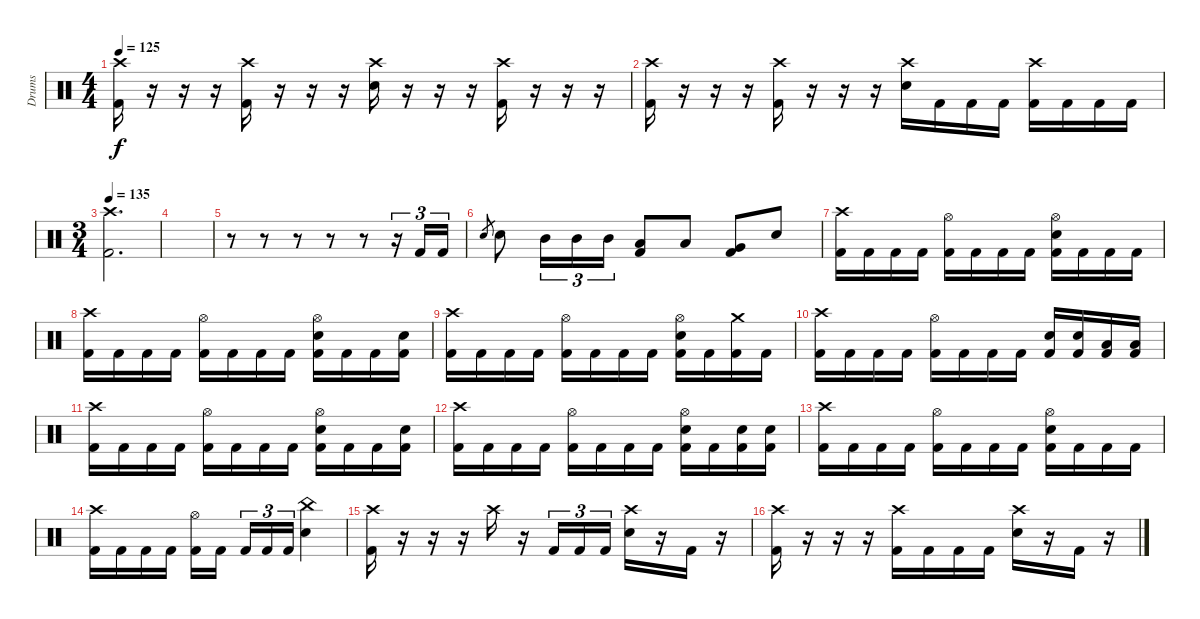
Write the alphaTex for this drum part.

\track ("Drums" "Drums") {instrument percussion}
\staff {score}
\articulation defaults
\ts (4 4)
\tempo 125
\clef neutral
\ks c
("Crash high (hit)" "Kick (hit) 2").16{dy f} r.16 r.16 r.16 ("Crash high (hit)" "Kick (hit) 2").16 r.16 r.16 r.16 ("Crash high (hit)" "Electric Snare (hit)").16 r.16 r.16 r.16 ("Crash high (hit)" "Kick (hit) 2").16 r.16 r.16 r.16 |
("Crash high (hit)" "Kick (hit) 2").16 r.16 r.16 r.16 ("Crash high (hit)" "Kick (hit) 2").16 r.16 r.16 r.16 ("Crash high (hit)" "Electric Snare (hit)").16 "Kick (hit) 2".16 "Kick (hit) 2".16 "Kick (hit) 2".16 ("Crash high (hit)" "Kick (hit) 2").16 "Kick (hit) 2".16 "Kick (hit) 2".16 "Kick (hit) 2".16 |
\ts (3 4)
\tempo 135
("Crash high (hit)" "Kick (hit) 2").2{d} |
|
r.8 r.8 r.8 r.8 r.8 r.16{tu (3 2)} "Kick (hit) 2".16{tu (3 2)} "Kick (hit) 2".16{tu (3 2)} |
"Electric Snare (hit)".8{gr} "Electric Snare (hit)".8 "Mid Tom (hit)".16{tu (3 2)} "Mid Tom (hit)".16{tu (3 2)} "Mid Tom (hit)".16{tu (3 2)} ("Low Tom (hit)" "Kick (hit) 2").8 "Low Tom (hit)".8 ("Very Low Tom (hit)" "Kick (hit) 2").8 "Electric Snare (hit)".8 |
("Crash high (hit)" "Kick (hit) 2").16 "Kick (hit) 2".16 "Kick (hit) 2".16 "Kick (hit) 2".16 ("Hi-Hat (open)" "Kick (hit) 2").16 "Kick (hit) 2".16 "Kick (hit) 2".16 "Kick (hit) 2".16 ("Hi-Hat (open)" "Electric Snare (hit)" "Kick (hit) 2").16 "Kick (hit) 2".16 "Kick (hit) 2".16 "Kick (hit) 2".16 |
("Crash high (hit)" "Kick (hit) 2").16 "Kick (hit) 2".16 "Kick (hit) 2".16 "Kick (hit) 2".16 ("Hi-Hat (open)" "Kick (hit) 2").16 "Kick (hit) 2".16 "Kick (hit) 2".16 "Kick (hit) 2".16 ("Hi-Hat (open)" "Electric Snare (hit)" "Kick (hit) 2").16 "Kick (hit) 2".16 "Kick (hit) 2".16 ("Electric Snare (hit)" "Kick (hit) 2").16 |
("Crash high (hit)" "Kick (hit) 2").16 "Kick (hit) 2".16 "Kick (hit) 2".16 "Kick (hit) 2".16 ("Hi-Hat (open)" "Kick (hit) 2").16 "Kick (hit) 2".16 "Kick (hit) 2".16 "Kick (hit) 2".16 ("Hi-Hat (open)" "Electric Snare (hit)" "Kick (hit) 2").16 "Kick (hit) 2".16 ("Crash medium (hit)" "Kick (hit) 2").16 "Kick (hit) 2".16 |
("Crash high (hit)" "Kick (hit) 2").16 "Kick (hit) 2".16 "Kick (hit) 2".16 "Kick (hit) 2".16 ("Hi-Hat (open)" "Kick (hit) 2").16 "Kick (hit) 2".16 "Kick (hit) 2".16 "Kick (hit) 2".16 ("Electric Snare (hit)" "Kick (hit) 2").16 ("Electric Snare (hit)" "Kick (hit) 2").16 ("Low Tom (hit)" "Kick (hit) 2").16 ("Low Tom (hit)" "Kick (hit) 2").16 |
("Crash high (hit)" "Kick (hit) 2").16 "Kick (hit) 2".16 "Kick (hit) 2".16 "Kick (hit) 2".16 ("Hi-Hat (open)" "Kick (hit) 2").16 "Kick (hit) 2".16 "Kick (hit) 2".16 "Kick (hit) 2".16 ("Hi-Hat (open)" "Electric Snare (hit)" "Kick (hit) 2").16 "Kick (hit) 2".16 "Kick (hit) 2".16 ("Electric Snare (hit)" "Kick (hit) 2").16 |
("Crash high (hit)" "Kick (hit) 2").16 "Kick (hit) 2".16 "Kick (hit) 2".16 "Kick (hit) 2".16 ("Hi-Hat (open)" "Kick (hit) 2").16 "Kick (hit) 2".16 "Kick (hit) 2".16 "Kick (hit) 2".16 ("Hi-Hat (open)" "Electric Snare (hit)" "Kick (hit) 2").16 "Kick (hit) 2".16 ("Electric Snare (hit)" "Kick (hit) 2").16 ("Electric Snare (hit)" "Kick (hit) 2").16 |
("Crash high (hit)" "Kick (hit) 2").16 "Kick (hit) 2".16 "Kick (hit) 2".16 "Kick (hit) 2".16 ("Hi-Hat (open)" "Kick (hit) 2").16 "Kick (hit) 2".16 "Kick (hit) 2".16 "Kick (hit) 2".16 ("Hi-Hat (open)" "Electric Snare (hit)" "Kick (hit) 2").16 "Kick (hit) 2".16 "Kick (hit) 2".16 "Kick (hit) 2".16 |
("Crash high (hit)" "Kick (hit) 2").16 "Kick (hit) 2".16 "Kick (hit) 2".16 "Kick (hit) 2".16 ("Hi-Hat (open)" "Kick (hit) 2").16 "Kick (hit) 2".16{beam splitsecondary} "Kick (hit) 2".16{tu (3 2)} "Kick (hit) 2".16{tu (3 2)} "Kick (hit) 2".16{tu (3 2)} ("China (hit)" "Electric Snare (hit)").4 |
("Crash high (hit)" "Kick (hit) 2").16 r.16 r.16 r.16 "Crash high (hit)".16 r.16 "Kick (hit) 2".16{tu (3 2)} "Kick (hit) 2".16{tu (3 2)} "Kick (hit) 2".16{tu (3 2)} ("Crash high (hit)" "Electric Snare (hit)").16 r.16 "Kick (hit) 2".16 r.16 |
("Crash high (hit)" "Kick (hit) 2").16 r.16 r.16 r.16 ("Crash high (hit)" "Kick (hit) 2").16 "Kick (hit) 2".16 "Kick (hit) 2".16 "Kick (hit) 2".16 ("Crash high (hit)" "Electric Snare (hit)").16 r.16 "Kick (hit) 2".16 r.16
